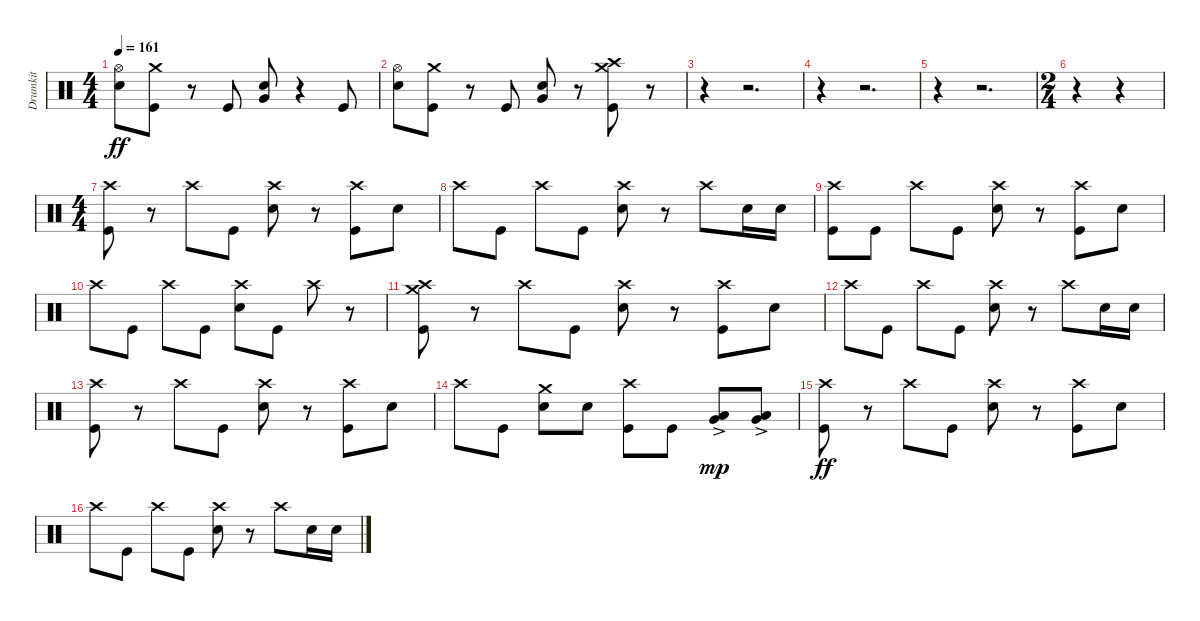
\track ("Drumkit" "Drumkit") {instrument percussion}
\staff {score}
\articulation defaults
\ts (4 4)
\tempo 161
\clef neutral
\ks c
("Snare (hit) 2" "Hi-Hat (open)").8{dy ff} ("Crash medium (hit)" "Kick (hit)").8 r.8 "Kick (hit)".8 ("Snare (hit) 2" "Very Low Tom (hit)").8 r.4 "Kick (hit)".8 |
("Snare (hit) 2" "Hi-Hat (open)").8 ("Crash medium (hit)" "Kick (hit)").8 r.8 "Kick (hit)".8 ("Snare (hit) 2" "Very Low Tom (hit)").8 r.8 ("Kick (hit)" "Crash high (hit)" "Crash medium (hit)").8 r.8 |
r.4 r.2{d} |
r.4 r.2{d} |
r.4 r.2{d} |
\ts (2 4)
r.4 r.4 |
\ts (4 4)
("Crash high (hit)" "Kick (hit)").8 r.8 "Crash high (hit)".8 "Kick (hit)".8 ("Crash high (hit)" "Snare (hit) 2").8 r.8 ("Crash high (hit)" "Kick (hit)").8 "Snare (hit) 2".8 |
"Crash high (hit)".8 "Kick (hit)".8 "Crash high (hit)".8 "Kick (hit)".8 ("Crash high (hit)" "Snare (hit) 2").8 r.8 "Crash high (hit)".8 "Snare (hit) 2".16 "Snare (hit) 2".16 |
("Crash high (hit)" "Kick (hit)").8 "Kick (hit)".8 "Crash high (hit)".8 "Kick (hit)".8 ("Snare (hit) 2" "Crash high (hit)").8 r.8 ("Crash high (hit)" "Kick (hit)").8 "Snare (hit) 2".8 |
"Crash high (hit)".8 "Kick (hit)".8 "Crash high (hit)".8 "Kick (hit)".8 ("Crash high (hit)" "Snare (hit) 2").8 "Kick (hit)".8 "Crash high (hit)".8 r.8 |
("Crash high (hit)" "Crash medium (hit)" "Kick (hit)").8 r.8 "Crash high (hit)".8 "Kick (hit)".8 ("Snare (hit) 2" "Crash high (hit)").8 r.8 ("Crash high (hit)" "Kick (hit)").8 "Snare (hit) 2".8 |
"Crash high (hit)".8 "Kick (hit)".8 "Crash high (hit)".8 "Kick (hit)".8 ("Snare (hit) 2" "Crash high (hit)").8 r.8 "Crash high (hit)".8 "Snare (hit) 2".16 "Snare (hit) 2".16 |
("Crash high (hit)" "Kick (hit)").8 r.8 "Crash high (hit)".8 "Kick (hit)".8 ("Snare (hit) 2" "Crash high (hit)").8 r.8 ("Crash high (hit)" "Kick (hit)").8 "Snare (hit) 2".8 |
"Crash high (hit)".8 "Kick (hit)".8 ("Snare (hit) 2" "Crash medium (hit)").8 "Snare (hit) 2".8 ("Kick (hit)" "Crash high (hit)").8 "Kick (hit)".8 ("Very Low Tom (hit)"{ac} "Low Tom (hit)"{ac}).8{dy mp} ("Low Tom (hit)"{ac} "Very Low Tom (hit)"{ac}).8 |
("Crash high (hit)" "Kick (hit)").8{dy ff} r.8 "Crash high (hit)".8 "Kick (hit)".8 ("Crash high (hit)" "Snare (hit) 2").8 r.8 ("Crash high (hit)" "Kick (hit)").8 "Snare (hit) 2".8 |
"Crash high (hit)".8 "Kick (hit)".8 "Crash high (hit)".8 "Kick (hit)".8 ("Snare (hit) 2" "Crash high (hit)").8 r.8 "Crash high (hit)".8 "Snare (hit) 2".16 "Snare (hit) 2".16
